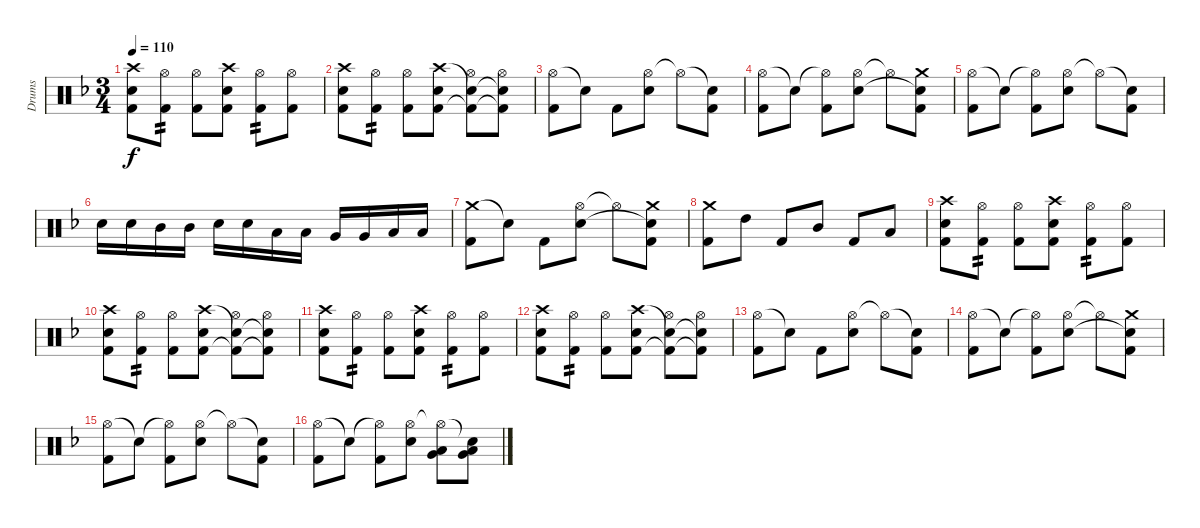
\track ("Drums" "Drums") {instrument percussion}
\staff {score}
\articulation defaults
\ts (3 4)
\tempo 110
\clef neutral
\ks dminor
("Crash high (hit)" "Snare (hit) 2" "Kick (hit) 2").8{dy f} ("Hi-Hat (open)" "Kick (hit) 2").8{tp 2} ("Hi-Hat (open)" "Kick (hit) 2").8 ("Crash high (hit)" "Snare (hit) 2" "Kick (hit) 2").8 ("Hi-Hat (open)" "Kick (hit) 2").8{tp 2} ("Hi-Hat (open)" "Kick (hit) 2").8 |
("Crash high (hit)" "Snare (hit) 2" "Kick (hit) 2").8 ("Hi-Hat (open)" "Kick (hit) 2").8{tp 2} ("Hi-Hat (open)" "Kick (hit) 2").8 ("Crash high (hit)" "Snare (hit) 2" "Kick (hit) 2").8 ("Snare (hit)"{t} "Hi-Hat (open)" "Kick (hit) 2"{t}).8 ("Snare (hit)"{t} "Hi-Hat (open)" "Kick (hit) 2"{t}).8 |
("Hi-Hat (open)" "Kick (hit) 2").8 "Snare (hit)"{t}.8 "Kick (hit) 2".8 ("Hi-Hat (open)" "Snare (hit) 2").8 "Hi-Hat (open)"{t}.8 ("Snare (hit)"{t} "Kick (hit) 2").8 |
("Hi-Hat (open)" "Kick (hit) 2").8 "Snare (hit)"{t}.8 ("Hi-Hat (open)"{t} "Kick (hit) 2").8 ("Hi-Hat (open)" "Snare (hit) 2").8 "Hi-Hat (open)"{t}.8 ("Crash medium (hit)" "Snare (hit)"{t} "Kick (hit) 2").8 |
("Hi-Hat (open)" "Kick (hit) 2").8 "Snare (hit)"{t}.8 ("Hi-Hat (open)"{t} "Kick (hit) 2").8 ("Hi-Hat (open)" "Snare (hit) 2").8 "Hi-Hat (open)"{t}.8 ("Snare (hit)"{t} "Kick (hit) 2").8 |
"Snare (hit) 2".16 "Snare (hit) 2".16 "Mid Tom (hit)".16 "Mid Tom (hit)".16 "Snare (hit) 2".16 "Snare (hit) 2".16 "Low Tom (hit)".16 "Low Tom (hit)".16 "Very Low Tom (hit)".16 "Very Low Tom (hit)".16 "Low Floor Tom (hit)".16 "Low Floor Tom (hit)".16 |
("Crash medium (hit)" "Kick (hit) 2").8 "Snare (hit)"{t}.8 "Kick (hit) 2".8 ("Hi-Hat (open)" "Snare (hit) 2").8 "Hi-Hat (open)"{t}.8 ("Crash medium (hit)" "Snare (hit)"{t} "Kick (hit) 2").8 |
("Crash medium (hit)" "Kick (hit) 2").8 "High Tom (hit)".8 "Kick (hit) 2".8 "Mid Tom (hit)".8 "Kick (hit) 2".8 "Low Tom (hit)".8 |
("Crash high (hit)" "Snare (hit) 2" "Kick (hit) 2").8 ("Hi-Hat (open)" "Kick (hit) 2").8{tp 2} ("Hi-Hat (open)" "Kick (hit) 2").8 ("Crash high (hit)" "Snare (hit) 2" "Kick (hit) 2").8 ("Hi-Hat (open)" "Kick (hit) 2").8{tp 2} ("Hi-Hat (open)" "Kick (hit) 2").8 |
("Crash high (hit)" "Snare (hit) 2" "Kick (hit) 2").8 ("Hi-Hat (open)" "Kick (hit) 2").8{tp 2} ("Hi-Hat (open)" "Kick (hit) 2").8 ("Crash high (hit)" "Snare (hit) 2" "Kick (hit) 2").8 ("Snare (hit)"{t} "Hi-Hat (open)" "Kick (hit) 2"{t}).8 ("Snare (hit)"{t} "Hi-Hat (open)" "Kick (hit) 2"{t}).8 |
("Crash high (hit)" "Snare (hit) 2" "Kick (hit) 2").8 ("Hi-Hat (open)" "Kick (hit) 2").8{tp 2} ("Hi-Hat (open)" "Kick (hit) 2").8 ("Crash high (hit)" "Snare (hit) 2" "Kick (hit) 2").8 ("Hi-Hat (open)" "Kick (hit) 2").8{tp 2} ("Hi-Hat (open)" "Kick (hit) 2").8 |
("Crash high (hit)" "Snare (hit) 2" "Kick (hit) 2").8 ("Hi-Hat (open)" "Kick (hit) 2").8{tp 2} ("Hi-Hat (open)" "Kick (hit) 2").8 ("Crash high (hit)" "Snare (hit) 2" "Kick (hit) 2").8 ("Snare (hit)"{t} "Hi-Hat (open)" "Kick (hit) 2"{t}).8 ("Snare (hit)"{t} "Hi-Hat (open)" "Kick (hit) 2"{t}).8 |
("Hi-Hat (open)" "Kick (hit) 2").8 "Snare (hit)"{t}.8 "Kick (hit) 2".8 ("Hi-Hat (open)" "Snare (hit) 2").8 "Hi-Hat (open)"{t}.8 ("Snare (hit)"{t} "Kick (hit) 2").8 |
("Hi-Hat (open)" "Kick (hit) 2").8 "Snare (hit)"{t}.8 ("Hi-Hat (open)"{t} "Kick (hit) 2").8 ("Hi-Hat (open)" "Snare (hit) 2").8 "Hi-Hat (open)"{t}.8 ("Crash medium (hit)" "Snare (hit)"{t} "Kick (hit) 2").8 |
("Hi-Hat (open)" "Kick (hit) 2").8 "Snare (hit)"{t}.8 ("Hi-Hat (open)"{t} "Kick (hit) 2").8 ("Hi-Hat (open)" "Snare (hit) 2").8 "Hi-Hat (open)"{t}.8 ("Snare (hit)"{t} "Kick (hit) 2").8 |
("Hi-Hat (open)" "Kick (hit) 2").8 "Snare (hit)"{t}.8 ("Hi-Hat (open)"{t} "Kick (hit) 2").8 ("Hi-Hat (open)" "Snare (hit) 2").8 ("Hi-Hat (open)"{t} "Very Low Tom (hit)" "Low Tom (hit)").8 ("Snare (hit)"{t} "Very Low Tom (hit)" "Low Tom (hit)").8
